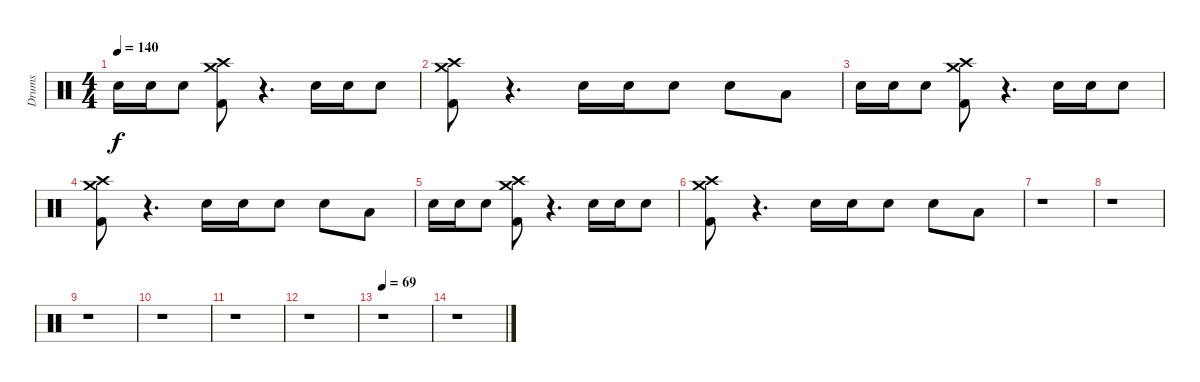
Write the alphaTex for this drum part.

\track ("Drums" "Drums") {instrument percussion}
\staff {score}
\articulation defaults
\ts (4 4)
\tempo 140
\clef neutral
\ks c "Snare (hit) 2".16{dy f} "Snare (hit) 2".16 "Snare (hit) 2".8
("Crash medium (hit)" "Crash high (hit)" "Kick (hit) 2").8 r.4{d} "Snare (hit) 2".16 "Snare (hit) 2".16 "Snare (hit) 2".8 |
("Crash medium (hit)" "Crash high (hit)" "Kick (hit) 2").8 r.4{d} "Snare (hit) 2".16 "Snare (hit) 2".16 "Snare (hit) 2".8 "Snare (hit) 2".8 "Low Tom (hit)".8 |
"Snare (hit) 2".16 "Snare (hit) 2".16 "Snare (hit) 2".8 ("Crash medium (hit)" "Crash high (hit)" "Kick (hit) 2").8 r.4{d} "Snare (hit) 2".16 "Snare (hit) 2".16 "Snare (hit) 2".8 |
("Crash medium (hit)" "Crash high (hit)" "Kick (hit) 2").8 r.4{d} "Snare (hit) 2".16 "Snare (hit) 2".16 "Snare (hit) 2".8 "Snare (hit) 2".8 "Low Tom (hit)".8 |
"Snare (hit) 2".16 "Snare (hit) 2".16 "Snare (hit) 2".8 ("Crash medium (hit)" "Crash high (hit)" "Kick (hit) 2").8 r.4{d} "Snare (hit) 2".16 "Snare (hit) 2".16 "Snare (hit) 2".8 |
("Crash medium (hit)" "Crash high (hit)" "Kick (hit) 2").8 r.4{d} "Snare (hit) 2".16 "Snare (hit) 2".16 "Snare (hit) 2".8 "Snare (hit) 2".8 "Low Tom (hit)".8 |
r.1 |
r.1 |
r.1 |
r.1 |
r.1 |
r.1 |
\tempo 69
r.1 |
r.1
